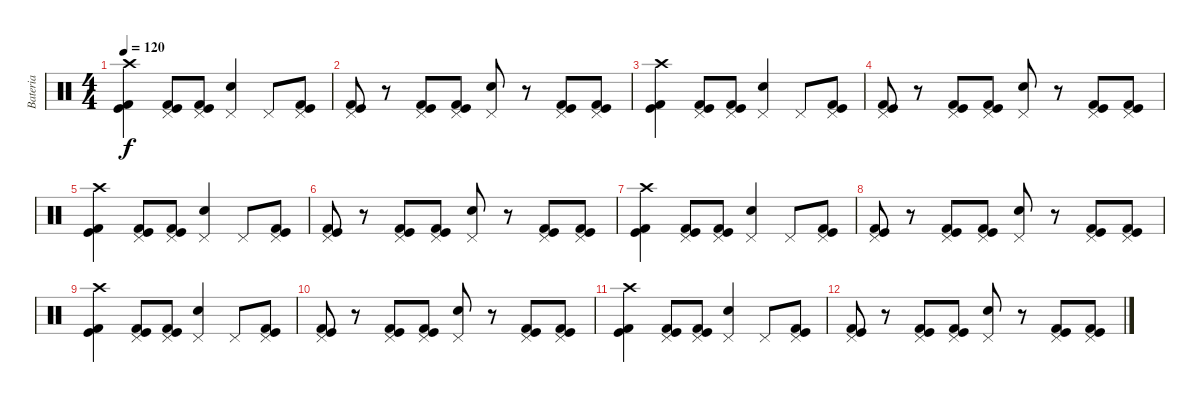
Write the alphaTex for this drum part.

\track ("Bateria" "Bateria") {instrument percussion}
\staff {score}
\articulation defaults
\ts (4 4)
\tempo 120
\clef neutral
\ks c
("Kick (hit) 2" "Kick (hit)" "Crash high (hit)").4{dy f} ("Kick (hit) 2" "Kick (hit)" "Pedal Hi-Hat (hit)").8 ("Kick (hit)" "Kick (hit) 2" "Pedal Hi-Hat (hit)").8 ("Electric Snare (hit)" "Pedal Hi-Hat (hit)").4 "Pedal Hi-Hat (hit)".8 ("Kick (hit) 2" "Kick (hit)" "Pedal Hi-Hat (hit)").8 |
("Kick (hit) 2" "Kick (hit)" "Pedal Hi-Hat (hit)").8 r.8 ("Kick (hit)" "Kick (hit) 2" "Pedal Hi-Hat (hit)").8 ("Kick (hit)" "Kick (hit) 2" "Pedal Hi-Hat (hit)").8 ("Electric Snare (hit)" "Pedal Hi-Hat (hit)").8 r.8 ("Kick (hit)" "Kick (hit) 2" "Pedal Hi-Hat (hit)").8 ("Kick (hit)" "Kick (hit) 2" "Pedal Hi-Hat (hit)").8 |
("Kick (hit) 2" "Kick (hit)" "Crash high (hit)").4 ("Kick (hit) 2" "Kick (hit)" "Pedal Hi-Hat (hit)").8 ("Kick (hit)" "Kick (hit) 2" "Pedal Hi-Hat (hit)").8 ("Electric Snare (hit)" "Pedal Hi-Hat (hit)").4 "Pedal Hi-Hat (hit)".8 ("Kick (hit) 2" "Kick (hit)" "Pedal Hi-Hat (hit)").8 |
("Kick (hit) 2" "Kick (hit)" "Pedal Hi-Hat (hit)").8 r.8 ("Kick (hit)" "Kick (hit) 2" "Pedal Hi-Hat (hit)").8 ("Kick (hit)" "Kick (hit) 2" "Pedal Hi-Hat (hit)").8 ("Electric Snare (hit)" "Pedal Hi-Hat (hit)").8 r.8 ("Kick (hit)" "Kick (hit) 2" "Pedal Hi-Hat (hit)").8 ("Kick (hit)" "Kick (hit) 2" "Pedal Hi-Hat (hit)").8 |
("Kick (hit) 2" "Kick (hit)" "Crash high (hit)").4 ("Kick (hit) 2" "Kick (hit)" "Pedal Hi-Hat (hit)").8 ("Kick (hit)" "Kick (hit) 2" "Pedal Hi-Hat (hit)").8 ("Electric Snare (hit)" "Pedal Hi-Hat (hit)").4 "Pedal Hi-Hat (hit)".8 ("Kick (hit) 2" "Kick (hit)" "Pedal Hi-Hat (hit)").8 |
("Kick (hit) 2" "Kick (hit)" "Pedal Hi-Hat (hit)").8 r.8 ("Kick (hit)" "Kick (hit) 2" "Pedal Hi-Hat (hit)").8 ("Kick (hit)" "Kick (hit) 2" "Pedal Hi-Hat (hit)").8 ("Electric Snare (hit)" "Pedal Hi-Hat (hit)").8 r.8 ("Kick (hit)" "Kick (hit) 2" "Pedal Hi-Hat (hit)").8 ("Kick (hit)" "Kick (hit) 2" "Pedal Hi-Hat (hit)").8 |
("Kick (hit) 2" "Kick (hit)" "Crash high (hit)").4 ("Kick (hit) 2" "Kick (hit)" "Pedal Hi-Hat (hit)").8 ("Kick (hit)" "Kick (hit) 2" "Pedal Hi-Hat (hit)").8 ("Electric Snare (hit)" "Pedal Hi-Hat (hit)").4 "Pedal Hi-Hat (hit)".8 ("Kick (hit) 2" "Kick (hit)" "Pedal Hi-Hat (hit)").8 |
("Kick (hit) 2" "Kick (hit)" "Pedal Hi-Hat (hit)").8 r.8 ("Kick (hit)" "Kick (hit) 2" "Pedal Hi-Hat (hit)").8 ("Kick (hit)" "Kick (hit) 2" "Pedal Hi-Hat (hit)").8 ("Electric Snare (hit)" "Pedal Hi-Hat (hit)").8 r.8 ("Kick (hit)" "Kick (hit) 2" "Pedal Hi-Hat (hit)").8 ("Kick (hit)" "Kick (hit) 2" "Pedal Hi-Hat (hit)").8 |
("Kick (hit) 2" "Kick (hit)" "Crash high (hit)").4 ("Kick (hit) 2" "Kick (hit)" "Pedal Hi-Hat (hit)").8 ("Kick (hit)" "Kick (hit) 2" "Pedal Hi-Hat (hit)").8 ("Electric Snare (hit)" "Pedal Hi-Hat (hit)").4 "Pedal Hi-Hat (hit)".8 ("Kick (hit) 2" "Kick (hit)" "Pedal Hi-Hat (hit)").8 |
("Kick (hit) 2" "Kick (hit)" "Pedal Hi-Hat (hit)").8 r.8 ("Kick (hit)" "Kick (hit) 2" "Pedal Hi-Hat (hit)").8 ("Kick (hit)" "Kick (hit) 2" "Pedal Hi-Hat (hit)").8 ("Electric Snare (hit)" "Pedal Hi-Hat (hit)").8 r.8 ("Kick (hit)" "Kick (hit) 2" "Pedal Hi-Hat (hit)").8 ("Kick (hit)" "Kick (hit) 2" "Pedal Hi-Hat (hit)").8 |
("Kick (hit) 2" "Kick (hit)" "Crash high (hit)").4 ("Kick (hit) 2" "Kick (hit)" "Pedal Hi-Hat (hit)").8 ("Kick (hit)" "Kick (hit) 2" "Pedal Hi-Hat (hit)").8 ("Electric Snare (hit)" "Pedal Hi-Hat (hit)").4 "Pedal Hi-Hat (hit)".8 ("Kick (hit) 2" "Kick (hit)" "Pedal Hi-Hat (hit)").8 |
("Kick (hit) 2" "Kick (hit)" "Pedal Hi-Hat (hit)").8 r.8 ("Kick (hit)" "Kick (hit) 2" "Pedal Hi-Hat (hit)").8 ("Kick (hit)" "Kick (hit) 2" "Pedal Hi-Hat (hit)").8 ("Electric Snare (hit)" "Pedal Hi-Hat (hit)").8 r.8 ("Kick (hit)" "Kick (hit) 2" "Pedal Hi-Hat (hit)").8 ("Kick (hit)" "Kick (hit) 2" "Pedal Hi-Hat (hit)").8
